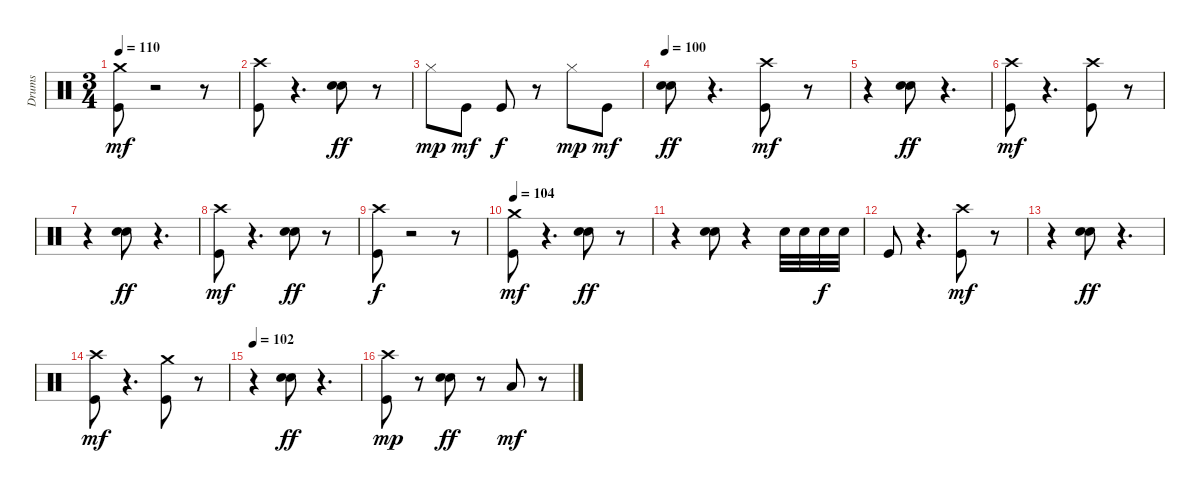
\track ("Drums" "Drums") {instrument percussion}
\staff {score}
\articulation defaults
\ts (3 4)
\tempo 110
\clef neutral
\ks c
("Kick (hit)" "Crash medium (hit)").8{dy mf} r.2 r.8 |
("Kick (hit)" "Crash high (hit)").8 r.4{d} ("Snare (hit) 2" "Electric Snare (hit)").8{dy ff} r.8 |
"Hi-Hat (closed)".8{dy mp} "Kick (hit)".8{dy mf} "Kick (hit)".8{dy f} r.8 "Hi-Hat (closed)".8{dy mp} "Kick (hit)".8{dy mf} |
\tempo 100
("Snare (hit) 2" "Electric Snare (hit)").8{dy ff} r.4{d} ("Kick (hit)" "Crash high (hit)").8{dy mf} r.8 |
r.4 ("Snare (hit) 2" "Electric Snare (hit)").8{dy ff} r.4{d} |
("Kick (hit)" "Crash high (hit)").8{dy mf} r.4{d} ("Kick (hit)" "Crash high (hit)").8 r.8 |
r.4 ("Snare (hit) 2" "Electric Snare (hit)").8{dy ff} r.4{d} |
("Kick (hit)" "Crash high (hit)").8{dy mf} r.4{d} ("Snare (hit) 2" "Electric Snare (hit)").8{dy ff} r.8 |
("Kick (hit)" "Crash high (hit)").8{dy f} r.2 r.8 |
\tempo 104
("Kick (hit)" "Crash medium (hit)").8{dy mf} r.4{d} ("Snare (hit) 2" "Electric Snare (hit)").8{dy ff} r.8 |
r.4 ("Snare (hit) 2" "Electric Snare (hit)").8 r.4 "Electric Snare (hit)".32 "Electric Snare (hit)".32 "Electric Snare (hit)".32{dy f} "Electric Snare (hit)".32 |
"Kick (hit)".8 r.4{d} ("Kick (hit)" "Crash high (hit)").8{dy mf} r.8 |
r.4 ("Snare (hit) 2" "Electric Snare (hit)").8{dy ff} r.4{d} |
("Kick (hit)" "Crash high (hit)").8{dy mf} r.4{d} ("Kick (hit)" "Crash medium (hit)").8 r.8 |
\tempo 102
r.4 ("Snare (hit) 2" "Electric Snare (hit)").8{dy ff} r.4{d} |
("Kick (hit)" "Crash high (hit)").8{dy mp} r.8 ("Snare (hit) 2" "Electric Snare (hit)").8{dy ff} r.8 "Low Tom (hit)".8{dy mf} r.8
